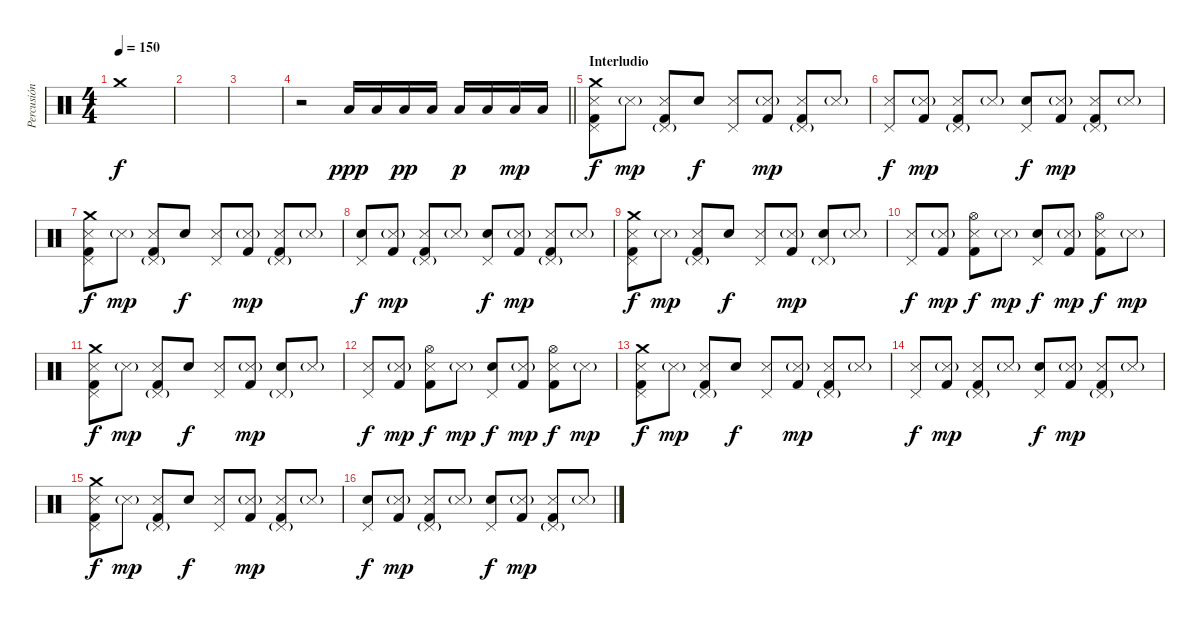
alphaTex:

\track ("Percusión" "Percusión") {instrument percussion}
\staff {score}
\articulation defaults
\ts (4 4)
\tempo 150
\clef neutral
\ks c "Crash medium (hit)".1{dy f}
|
|
|
\barLineRight lightlight
r.2 "Low Floor Tom (hit)".16{dy ppp} "Low Floor Tom (hit)".16 "Low Floor Tom (hit)".16{dy pp} "Low Floor Tom (hit)".16 "Low Floor Tom (hit)".16{dy p} "Low Floor Tom (hit)".16 "Low Floor Tom (hit)".16{dy mp} "Low Floor Tom (hit)".16 |
\section ("" "Interludio")
("Crash medium (hit)" "Pedal Hi-Hat (hit)" "Snare (side stick) 3" "Kick (hit) 2").8{dy f} "Snare (side stick) 3"{g}.8{dy mp} ("Pedal Hi-Hat (hit)"{g} "Snare (side stick) 3" "Kick (hit) 2").8 "Electric Snare (hit)".8{dy f} ("Pedal Hi-Hat (hit)" "Snare (side stick) 3").8 ("Snare (side stick) 3"{g} "Kick (hit) 2").8{dy mp} ("Pedal Hi-Hat (hit)"{g} "Snare (side stick) 3" "Kick (hit) 2").8 "Snare (side stick) 3"{g}.8 |
("Pedal Hi-Hat (hit)" "Snare (side stick) 3").8{dy f} ("Snare (side stick) 3"{g} "Kick (hit) 2").8{dy mp} ("Pedal Hi-Hat (hit)"{g} "Snare (side stick) 3" "Kick (hit) 2").8 "Snare (side stick) 3"{g}.8 ("Pedal Hi-Hat (hit)" "Electric Snare (hit)").8{dy f} ("Snare (side stick) 3"{g} "Kick (hit) 2").8{dy mp} ("Pedal Hi-Hat (hit)"{g} "Snare (side stick) 3" "Kick (hit) 2").8 "Snare (side stick) 3"{g}.8 |
("Crash medium (hit)" "Pedal Hi-Hat (hit)" "Snare (side stick) 3" "Kick (hit) 2").8{dy f} "Snare (side stick) 3"{g}.8{dy mp} ("Pedal Hi-Hat (hit)"{g} "Snare (side stick) 3" "Kick (hit) 2").8 "Electric Snare (hit)".8{dy f} ("Pedal Hi-Hat (hit)" "Snare (side stick) 3").8 ("Snare (side stick) 3"{g} "Kick (hit) 2").8{dy mp} ("Pedal Hi-Hat (hit)"{g} "Snare (side stick) 3" "Kick (hit) 2").8 "Snare (side stick) 3"{g}.8 |
("Pedal Hi-Hat (hit)" "Electric Snare (hit)").8{dy f} ("Snare (side stick) 3"{g} "Kick (hit) 2").8{dy mp} ("Pedal Hi-Hat (hit)"{g} "Snare (side stick) 3" "Kick (hit) 2").8 "Snare (side stick) 3"{g}.8 ("Pedal Hi-Hat (hit)" "Electric Snare (hit)").8{dy f} ("Snare (side stick) 3"{g} "Kick (hit) 2").8{dy mp} ("Pedal Hi-Hat (hit)"{g} "Snare (side stick) 3" "Kick (hit) 2").8 "Snare (side stick) 3"{g}.8 |
("Crash medium (hit)" "Pedal Hi-Hat (hit)" "Snare (side stick) 3" "Kick (hit) 2").8{dy f} "Snare (side stick) 3"{g}.8{dy mp} ("Pedal Hi-Hat (hit)"{g} "Snare (side stick) 3" "Kick (hit) 2").8 "Electric Snare (hit)".8{dy f} ("Pedal Hi-Hat (hit)" "Snare (side stick) 3").8 ("Snare (side stick) 3"{g} "Kick (hit) 2").8{dy mp} ("Pedal Hi-Hat (hit)"{g} "Electric Snare (hit)").8 "Snare (side stick) 3"{g}.8 |
("Pedal Hi-Hat (hit)" "Snare (side stick) 3").8{dy f} ("Snare (side stick) 3"{g} "Kick (hit) 2").8{dy mp} ("Hi-Hat (open)" "Snare (side stick) 3" "Kick (hit) 2").8{dy f} "Snare (side stick) 3"{g}.8{dy mp} ("Pedal Hi-Hat (hit)" "Electric Snare (hit)").8{dy f} ("Snare (side stick) 3"{g} "Kick (hit) 2").8{dy mp} ("Hi-Hat (open)" "Snare (side stick) 3" "Kick (hit) 2").8{dy f} "Snare (side stick) 3"{g}.8{dy mp} |
("Crash medium (hit)" "Pedal Hi-Hat (hit)" "Snare (side stick) 3" "Kick (hit) 2").8{dy f} "Snare (side stick) 3"{g}.8{dy mp} ("Pedal Hi-Hat (hit)"{g} "Snare (side stick) 3" "Kick (hit) 2").8 "Electric Snare (hit)".8{dy f} ("Pedal Hi-Hat (hit)" "Snare (side stick) 3").8 ("Snare (side stick) 3"{g} "Kick (hit) 2").8{dy mp} ("Pedal Hi-Hat (hit)"{g} "Electric Snare (hit)").8 "Snare (side stick) 3"{g}.8 |
("Pedal Hi-Hat (hit)" "Snare (side stick) 3").8{dy f} ("Snare (side stick) 3"{g} "Kick (hit) 2").8{dy mp} ("Hi-Hat (open)" "Snare (side stick) 3" "Kick (hit) 2").8{dy f} "Snare (side stick) 3"{g}.8{dy mp} ("Pedal Hi-Hat (hit)" "Electric Snare (hit)").8{dy f} ("Snare (side stick) 3"{g} "Kick (hit) 2").8{dy mp} ("Hi-Hat (open)" "Snare (side stick) 3" "Kick (hit) 2").8{dy f} "Snare (side stick) 3"{g}.8{dy mp} |
("Crash medium (hit)" "Pedal Hi-Hat (hit)" "Snare (side stick) 3" "Kick (hit) 2").8{dy f} "Snare (side stick) 3"{g}.8{dy mp} ("Pedal Hi-Hat (hit)"{g} "Snare (side stick) 3" "Kick (hit) 2").8 "Electric Snare (hit)".8{dy f} ("Pedal Hi-Hat (hit)" "Snare (side stick) 3").8 ("Snare (side stick) 3"{g} "Kick (hit) 2").8{dy mp} ("Pedal Hi-Hat (hit)"{g} "Snare (side stick) 3" "Kick (hit) 2").8 "Snare (side stick) 3"{g}.8 |
("Pedal Hi-Hat (hit)" "Snare (side stick) 3").8{dy f} ("Snare (side stick) 3"{g} "Kick (hit) 2").8{dy mp} ("Pedal Hi-Hat (hit)"{g} "Snare (side stick) 3" "Kick (hit) 2").8 "Snare (side stick) 3"{g}.8 ("Pedal Hi-Hat (hit)" "Electric Snare (hit)").8{dy f} ("Snare (side stick) 3"{g} "Kick (hit) 2").8{dy mp} ("Pedal Hi-Hat (hit)"{g} "Snare (side stick) 3" "Kick (hit) 2").8 "Snare (side stick) 3"{g}.8 |
("Crash medium (hit)" "Pedal Hi-Hat (hit)" "Snare (side stick) 3" "Kick (hit) 2").8{dy f} "Snare (side stick) 3"{g}.8{dy mp} ("Pedal Hi-Hat (hit)"{g} "Snare (side stick) 3" "Kick (hit) 2").8 "Electric Snare (hit)".8{dy f} ("Pedal Hi-Hat (hit)" "Snare (side stick) 3").8 ("Snare (side stick) 3"{g} "Kick (hit) 2").8{dy mp} ("Pedal Hi-Hat (hit)"{g} "Snare (side stick) 3" "Kick (hit) 2").8 "Snare (side stick) 3"{g}.8 |
("Pedal Hi-Hat (hit)" "Electric Snare (hit)").8{dy f} ("Snare (side stick) 3"{g} "Kick (hit) 2").8{dy mp} ("Pedal Hi-Hat (hit)"{g} "Snare (side stick) 3" "Kick (hit) 2").8 "Snare (side stick) 3"{g}.8 ("Pedal Hi-Hat (hit)" "Electric Snare (hit)").8{dy f} ("Snare (side stick) 3"{g} "Kick (hit) 2").8{dy mp} ("Pedal Hi-Hat (hit)"{g} "Snare (side stick) 3" "Kick (hit) 2").8 "Snare (side stick) 3"{g}.8
